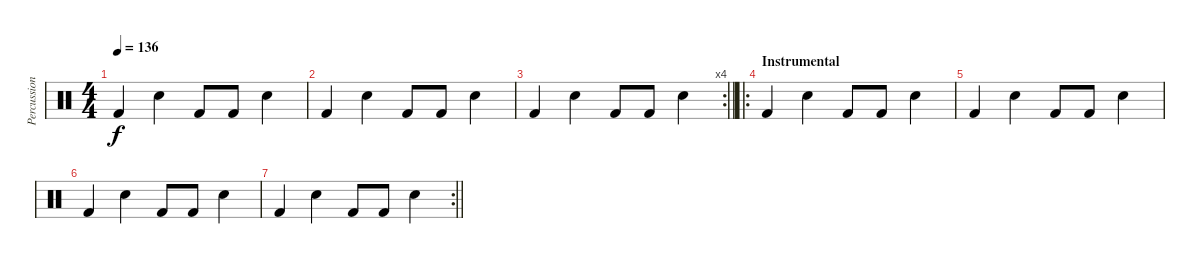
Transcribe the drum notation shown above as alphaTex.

\track ("Percussion" "Percussion") {instrument percussion}
\staff {score}
\articulation defaults
\ts (4 4)
\tempo 136
\clef neutral
\ks c "Kick (hit) 2".4{dy f} "Electric Snare (hit)".4 "Kick (hit) 2".8 "Kick (hit) 2".8 "Electric Snare (hit)".4
|
"Kick (hit) 2".4 "Electric Snare (hit)".4 "Kick (hit) 2".8 "Kick (hit) 2".8 "Electric Snare (hit)".4 |
\rc 4
\barLineRight lightlight "Kick (hit) 2".4 "Electric Snare (hit)".4 "Kick (hit) 2".8 "Kick (hit) 2".8 "Electric Snare (hit)".4
|
\ro
\section ("" "Instrumental")
"Kick (hit) 2".4 "Electric Snare (hit)".4 "Kick (hit) 2".8 "Kick (hit) 2".8 "Electric Snare (hit)".4 |
"Kick (hit) 2".4 "Electric Snare (hit)".4 "Kick (hit) 2".8 "Kick (hit) 2".8 "Electric Snare (hit)".4 |
"Kick (hit) 2".4 "Electric Snare (hit)".4 "Kick (hit) 2".8 "Kick (hit) 2".8 "Electric Snare (hit)".4 |
\rc 2
\barLineRight lightlight "Kick (hit) 2".4 "Electric Snare (hit)".4 "Kick (hit) 2".8 "Kick (hit) 2".8 "Electric Snare (hit)".4
